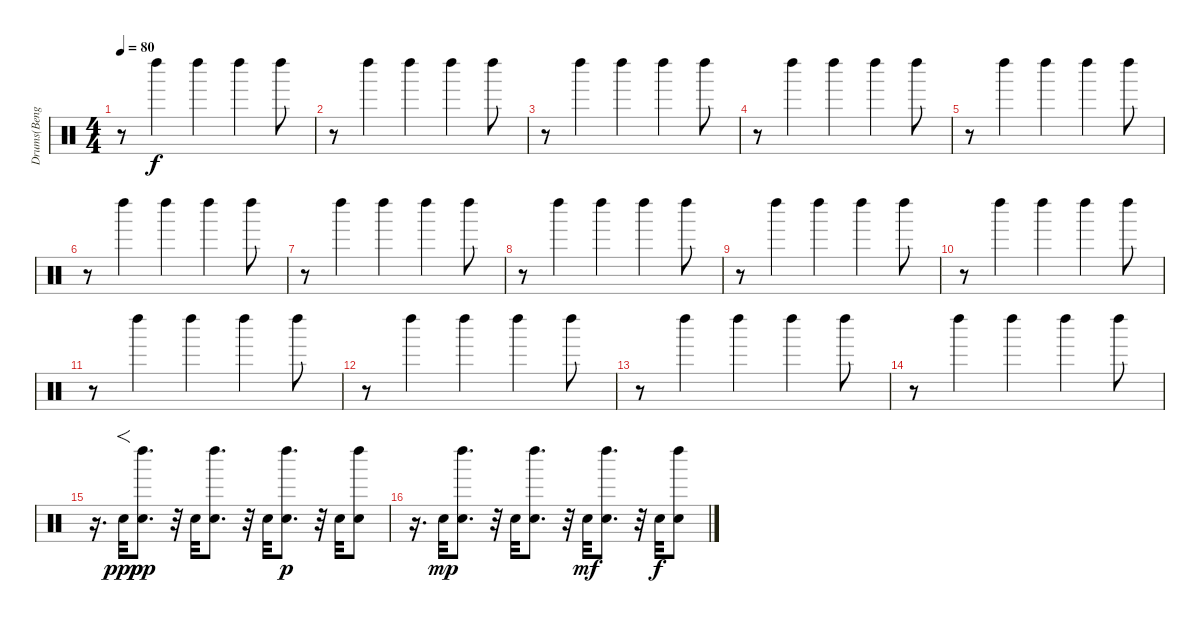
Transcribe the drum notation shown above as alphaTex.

\track ("Drums(Bengerg)" "Drums(Beng") {instrument percussion}
\staff {score}
\articulation defaults
\ts (4 4)
\tempo 80
\clef neutral
\ks c
r.8{dy f} "Left Maraca (hit)".4 "Left Maraca (hit)".4 "Left Maraca (hit)".4 "Left Maraca (hit)".8 |
r.8 "Left Maraca (hit)".4 "Left Maraca (hit)".4 "Left Maraca (hit)".4 "Left Maraca (hit)".8 |
r.8 "Left Maraca (hit)".4 "Left Maraca (hit)".4 "Left Maraca (hit)".4 "Left Maraca (hit)".8 |
r.8 "Left Maraca (hit)".4 "Left Maraca (hit)".4 "Left Maraca (hit)".4 "Left Maraca (hit)".8 |
r.8 "Left Maraca (hit)".4 "Left Maraca (hit)".4 "Left Maraca (hit)".4 "Left Maraca (hit)".8 |
r.8 "Left Maraca (hit)".4 "Left Maraca (hit)".4 "Left Maraca (hit)".4 "Left Maraca (hit)".8 |
r.8 "Left Maraca (hit)".4 "Left Maraca (hit)".4 "Left Maraca (hit)".4 "Left Maraca (hit)".8 |
r.8 "Left Maraca (hit)".4 "Left Maraca (hit)".4 "Left Maraca (hit)".4 "Left Maraca (hit)".8 |
r.8 "Left Maraca (hit)".4 "Left Maraca (hit)".4 "Left Maraca (hit)".4 "Left Maraca (hit)".8 |
r.8 "Left Maraca (hit)".4 "Left Maraca (hit)".4 "Left Maraca (hit)".4 "Left Maraca (hit)".8 |
r.8 "Left Maraca (hit)".4 "Left Maraca (hit)".4 "Left Maraca (hit)".4 "Left Maraca (hit)".8 |
r.8 "Left Maraca (hit)".4 "Left Maraca (hit)".4 "Left Maraca (hit)".4 "Left Maraca (hit)".8 |
r.8 "Left Maraca (hit)".4 "Left Maraca (hit)".4 "Left Maraca (hit)".4 "Left Maraca (hit)".8 |
r.8 "Left Maraca (hit)".4 "Left Maraca (hit)".4 "Left Maraca (hit)".4 "Left Maraca (hit)".8 |
r.16{d} "Electric Snare (hit)".32{f dy ppp} ("Left Maraca (hit)" "Electric Snare (hit)").8{d dy pp} r.32 "Electric Snare (hit)".32 ("Left Maraca (hit)" "Electric Snare (hit)").8{d} r.32 "Electric Snare (hit)".32 ("Left Maraca (hit)" "Electric Snare (hit)").8{d dy p} r.32 "Electric Snare (hit)".32 ("Left Maraca (hit)" "Electric Snare (hit)").8 |
r.16{d} "Electric Snare (hit)".32{dy mp} ("Left Maraca (hit)" "Electric Snare (hit)").8{d} r.32 "Electric Snare (hit)".32 ("Left Maraca (hit)" "Electric Snare (hit)").8{d} r.32 "Electric Snare (hit)".32{dy mf} ("Left Maraca (hit)" "Electric Snare (hit)").8{d} r.32 "Electric Snare (hit)".32{dy f} ("Left Maraca (hit)" "Electric Snare (hit)").8
